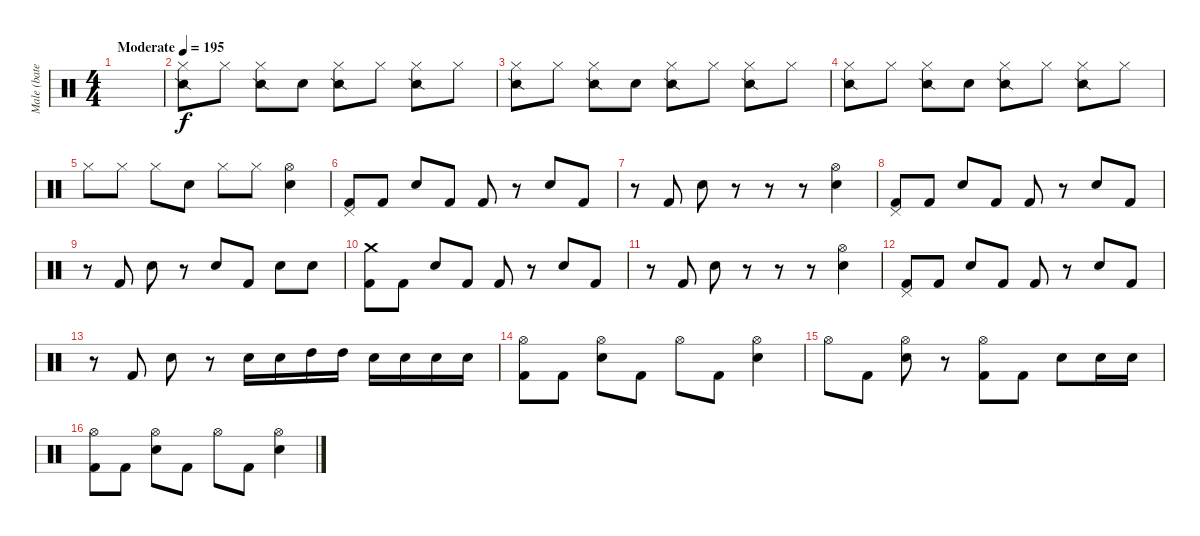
\track ("Male (bateria)" "Male (bate") {instrument percussion}
\staff {score}
\articulation defaults
\ts (4 4)
\tempo (195 "Moderate")
\clef neutral
\ks c
|
("Hi-Hat (closed)" "Snare (side stick) 2").8 "Hi-Hat (closed)".8 ("Hi-Hat (closed)" "Snare (side stick) 2").8 "Metronome (bell)".8 ("Hi-Hat (closed)" "Snare (side stick) 2").8 "Hi-Hat (closed)".8 ("Hi-Hat (closed)" "Snare (side stick) 2").8 "Hi-Hat (closed)".8 |
("Hi-Hat (closed)" "Snare (side stick) 2").8 "Hi-Hat (closed)".8 ("Hi-Hat (closed)" "Snare (side stick) 2").8 "Metronome (bell)".8 ("Hi-Hat (closed)" "Snare (side stick) 2").8 "Hi-Hat (closed)".8 ("Hi-Hat (closed)" "Snare (side stick) 2").8 "Hi-Hat (closed)".8 |
("Hi-Hat (closed)" "Snare (side stick) 2").8 "Hi-Hat (closed)".8 ("Hi-Hat (closed)" "Snare (side stick) 2").8 "Metronome (bell)".8 ("Hi-Hat (closed)" "Snare (side stick) 2").8 "Hi-Hat (closed)".8 ("Hi-Hat (closed)" "Snare (side stick) 2").8 "Hi-Hat (closed)".8 |
"Hi-Hat (closed)".8 "Hi-Hat (closed)".8 "Hi-Hat (closed)".8 "Metronome (bell)".8 "Hi-Hat (closed)".8 "Hi-Hat (closed)".8 ("Electric Snare (hit)" "Hi-Hat (open)").4 |
("Kick (hit) 2" "Pedal Hi-Hat (hit)").8 "Kick (hit) 2".8 "Electric Snare (hit)".8 "Kick (hit) 2".8 "Kick (hit) 2".8 r.8 "Electric Snare (hit)".8 "Kick (hit) 2".8 |
r.8 "Kick (hit) 2".8 "Electric Snare (hit)".8 r.8 r.8 r.8 ("Electric Snare (hit)" "Hi-Hat (open)").4 |
("Kick (hit) 2" "Pedal Hi-Hat (hit)").8 "Kick (hit) 2".8 "Electric Snare (hit)".8 "Kick (hit) 2".8 "Kick (hit) 2".8 r.8 "Electric Snare (hit)".8 "Kick (hit) 2".8 |
r.8 "Kick (hit) 2".8 "Electric Snare (hit)".8 r.8 "Electric Snare (hit)".8 "Kick (hit) 2".8 "Electric Snare (hit)".8 "Electric Snare (hit)".8 |
("Kick (hit) 2" "Crash medium (hit)").8 "Kick (hit) 2".8 "Electric Snare (hit)".8 "Kick (hit) 2".8 "Kick (hit) 2".8 r.8 "Electric Snare (hit)".8 "Kick (hit) 2".8 |
r.8 "Kick (hit) 2".8 "Electric Snare (hit)".8 r.8 r.8 r.8 ("Electric Snare (hit)" "Hi-Hat (open)").4 |
("Kick (hit) 2" "Pedal Hi-Hat (hit)").8 "Kick (hit) 2".8 "Electric Snare (hit)".8 "Kick (hit) 2".8 "Kick (hit) 2".8 r.8 "Electric Snare (hit)".8 "Kick (hit) 2".8 |
r.8 "Kick (hit) 2".8 "Electric Snare (hit)".8 r.8 "Electric Snare (hit)".16 "Electric Snare (hit)".16 "High Tom (hit)".16 "High Tom (hit)".16 "Electric Snare (hit)".16 "Electric Snare (hit)".16 "Electric Snare (hit)".16 "Electric Snare (hit)".16 |
("Kick (hit) 2" "Hi-Hat (open)").8 "Kick (hit) 2".8 ("Electric Snare (hit)" "Hi-Hat (open)").8 "Kick (hit) 2".8 "Hi-Hat (open)".8 "Kick (hit) 2".8 ("Electric Snare (hit)" "Hi-Hat (open)").4 |
"Hi-Hat (open)".8 "Kick (hit) 2".8 ("Electric Snare (hit)" "Hi-Hat (open)").8 r.8 ("Kick (hit) 2" "Hi-Hat (open)").8 "Kick (hit) 2".8 "Electric Snare (hit)".8 "Electric Snare (hit)".16 "Electric Snare (hit)".16 |
("Kick (hit) 2" "Hi-Hat (open)").8 "Kick (hit) 2".8 ("Electric Snare (hit)" "Hi-Hat (open)").8 "Kick (hit) 2".8 "Hi-Hat (open)".8 "Kick (hit) 2".8 ("Electric Snare (hit)" "Hi-Hat (open)").4
